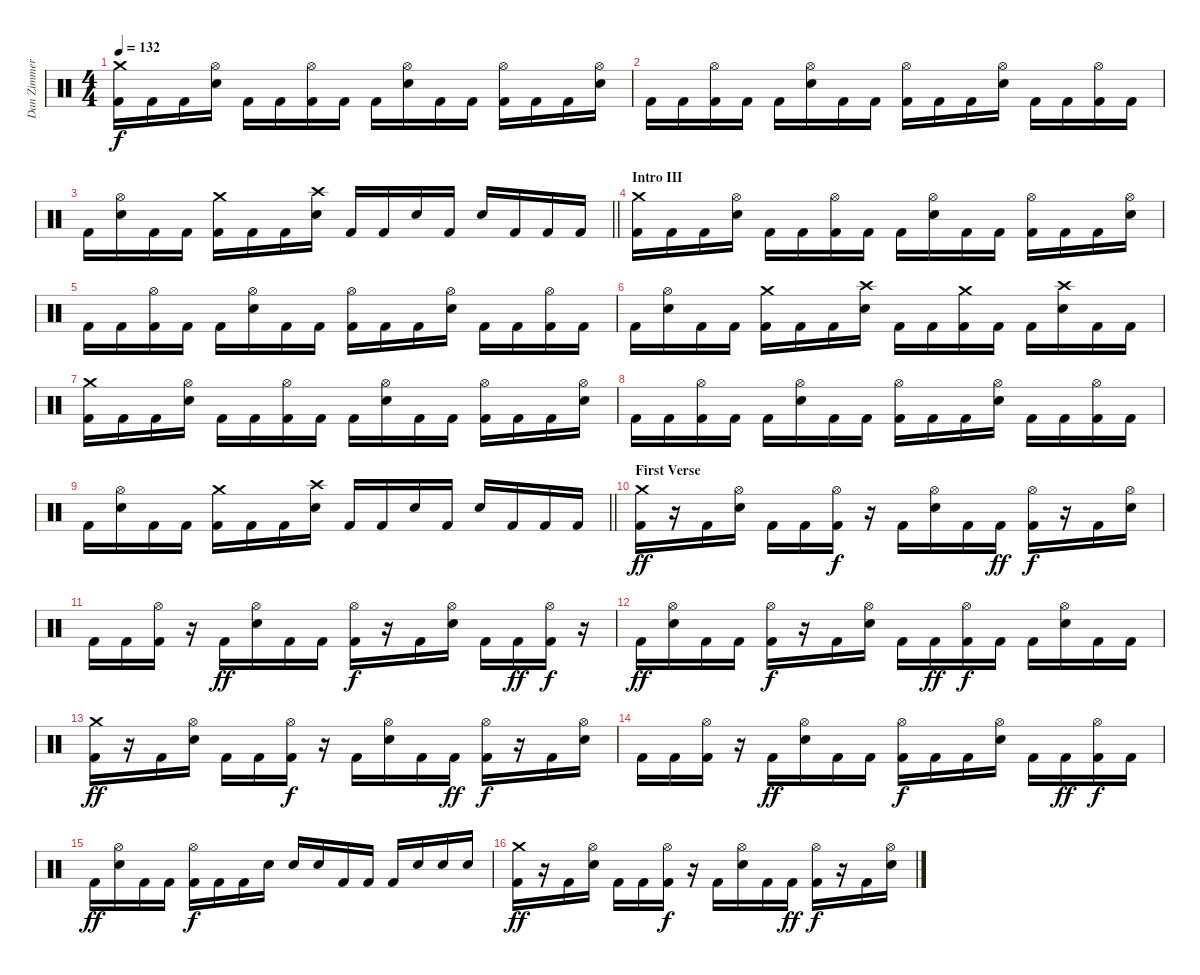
\track ("Dan Zimmermann" "Dan Zimmer") {instrument percussion}
\staff {score}
\articulation defaults
\ts (4 4)
\tempo 132
\clef neutral
\ks c
("Crash medium (hit)" "Kick (hit) 2").16{dy f} "Kick (hit) 2".16 "Kick (hit) 2".16 ("Hi-Hat (open)" "Electric Snare (hit)").16 "Kick (hit) 2".16 "Kick (hit) 2".16 ("Hi-Hat (open)" "Kick (hit) 2").16 "Kick (hit) 2".16 "Kick (hit) 2".16 ("Hi-Hat (open)" "Electric Snare (hit)").16 "Kick (hit) 2".16 "Kick (hit) 2".16 ("Hi-Hat (open)" "Kick (hit) 2").16 "Kick (hit) 2".16 "Kick (hit) 2".16 ("Hi-Hat (open)" "Electric Snare (hit)").16 |
"Kick (hit) 2".16 "Kick (hit) 2".16 ("Hi-Hat (open)" "Kick (hit) 2").16 "Kick (hit) 2".16 "Kick (hit) 2".16 ("Hi-Hat (open)" "Electric Snare (hit)").16 "Kick (hit) 2".16 "Kick (hit) 2".16 ("Hi-Hat (open)" "Kick (hit) 2").16 "Kick (hit) 2".16 "Kick (hit) 2".16 ("Hi-Hat (open)" "Electric Snare (hit)").16 "Kick (hit) 2".16 "Kick (hit) 2".16 ("Hi-Hat (open)" "Kick (hit) 2").16 "Kick (hit) 2".16 |
\barLineRight lightlight "Kick (hit) 2".16
("Hi-Hat (open)" "Electric Snare (hit)").16 "Kick (hit) 2".16 "Kick (hit) 2".16 ("Crash medium (hit)" "Kick (hit) 2").16 "Kick (hit) 2".16 "Kick (hit) 2".16 ("Crash high (hit)" "Electric Snare (hit)").16 "Kick (hit) 2".16 "Kick (hit) 2".16 "Electric Snare (hit)".16 "Kick (hit) 2".16 "Electric Snare (hit)".16 "Kick (hit) 2".16 "Kick (hit) 2".16 "Kick (hit) 2".16 |
\section ("" "Intro III")
("Crash medium (hit)" "Kick (hit) 2").16 "Kick (hit) 2".16 "Kick (hit) 2".16 ("Hi-Hat (open)" "Electric Snare (hit)").16 "Kick (hit) 2".16 "Kick (hit) 2".16 ("Hi-Hat (open)" "Kick (hit) 2").16 "Kick (hit) 2".16 "Kick (hit) 2".16 ("Hi-Hat (open)" "Electric Snare (hit)").16 "Kick (hit) 2".16 "Kick (hit) 2".16 ("Hi-Hat (open)" "Kick (hit) 2").16 "Kick (hit) 2".16 "Kick (hit) 2".16 ("Hi-Hat (open)" "Electric Snare (hit)").16 |
"Kick (hit) 2".16 "Kick (hit) 2".16 ("Hi-Hat (open)" "Kick (hit) 2").16 "Kick (hit) 2".16 "Kick (hit) 2".16 ("Hi-Hat (open)" "Electric Snare (hit)").16 "Kick (hit) 2".16 "Kick (hit) 2".16 ("Hi-Hat (open)" "Kick (hit) 2").16 "Kick (hit) 2".16 "Kick (hit) 2".16 ("Hi-Hat (open)" "Electric Snare (hit)").16 "Kick (hit) 2".16 "Kick (hit) 2".16 ("Hi-Hat (open)" "Kick (hit) 2").16 "Kick (hit) 2".16 |
"Kick (hit) 2".16 ("Hi-Hat (open)" "Electric Snare (hit)").16 "Kick (hit) 2".16 "Kick (hit) 2".16 ("Crash medium (hit)" "Kick (hit) 2").16 "Kick (hit) 2".16 "Kick (hit) 2".16 ("Crash high (hit)" "Electric Snare (hit)").16 "Kick (hit) 2".16 "Kick (hit) 2".16 ("Crash medium (hit)" "Kick (hit) 2").16 "Kick (hit) 2".16 "Kick (hit) 2".16 ("Crash high (hit)" "Electric Snare (hit)").16 "Kick (hit) 2".16 "Kick (hit) 2".16 |
("Crash medium (hit)" "Kick (hit) 2").16 "Kick (hit) 2".16 "Kick (hit) 2".16 ("Hi-Hat (open)" "Electric Snare (hit)").16 "Kick (hit) 2".16 "Kick (hit) 2".16 ("Hi-Hat (open)" "Kick (hit) 2").16 "Kick (hit) 2".16 "Kick (hit) 2".16 ("Hi-Hat (open)" "Electric Snare (hit)").16 "Kick (hit) 2".16 "Kick (hit) 2".16 ("Hi-Hat (open)" "Kick (hit) 2").16 "Kick (hit) 2".16 "Kick (hit) 2".16 ("Hi-Hat (open)" "Electric Snare (hit)").16 |
"Kick (hit) 2".16 "Kick (hit) 2".16 ("Hi-Hat (open)" "Kick (hit) 2").16 "Kick (hit) 2".16 "Kick (hit) 2".16 ("Hi-Hat (open)" "Electric Snare (hit)").16 "Kick (hit) 2".16 "Kick (hit) 2".16 ("Hi-Hat (open)" "Kick (hit) 2").16 "Kick (hit) 2".16 "Kick (hit) 2".16 ("Hi-Hat (open)" "Electric Snare (hit)").16 "Kick (hit) 2".16 "Kick (hit) 2".16 ("Hi-Hat (open)" "Kick (hit) 2").16 "Kick (hit) 2".16 |
\barLineRight lightlight "Kick (hit) 2".16
("Hi-Hat (open)" "Electric Snare (hit)").16 "Kick (hit) 2".16 "Kick (hit) 2".16 ("Crash medium (hit)" "Kick (hit) 2").16 "Kick (hit) 2".16 "Kick (hit) 2".16 ("Crash high (hit)" "Electric Snare (hit)").16 "Kick (hit) 2".16 "Kick (hit) 2".16 "Electric Snare (hit)".16 "Kick (hit) 2".16 "Electric Snare (hit)".16 "Kick (hit) 2".16 "Kick (hit) 2".16 "Kick (hit) 2".16 |
\section ("" "First Verse")
("Crash medium (hit)" "Kick (hit) 2").16{dy ff} r.16 "Kick (hit) 2".16 ("Hi-Hat (open)" "Electric Snare (hit)").16 "Kick (hit) 2".16 "Kick (hit) 2".16 ("Hi-Hat (open)" "Kick (hit) 2").16{dy f} r.16 "Kick (hit) 2".16 ("Hi-Hat (open)" "Electric Snare (hit)").16 "Kick (hit) 2".16 "Kick (hit) 2".16{dy ff} ("Hi-Hat (open)" "Kick (hit) 2").16{dy f} r.16 "Kick (hit) 2".16 ("Hi-Hat (open)" "Electric Snare (hit)").16 |
"Kick (hit) 2".16 "Kick (hit) 2".16 ("Hi-Hat (open)" "Kick (hit) 2").16 r.16 "Kick (hit) 2".16{dy ff} ("Hi-Hat (open)" "Electric Snare (hit)").16 "Kick (hit) 2".16 "Kick (hit) 2".16 ("Hi-Hat (open)" "Kick (hit) 2").16{dy f} r.16 "Kick (hit) 2".16 ("Hi-Hat (open)" "Electric Snare (hit)").16 "Kick (hit) 2".16 "Kick (hit) 2".16{dy ff} ("Hi-Hat (open)" "Kick (hit) 2").16{dy f} r.16 |
"Kick (hit) 2".16{dy ff} ("Hi-Hat (open)" "Electric Snare (hit)").16 "Kick (hit) 2".16 "Kick (hit) 2".16 ("Hi-Hat (open)" "Kick (hit) 2").16{dy f} r.16 "Kick (hit) 2".16 ("Hi-Hat (open)" "Electric Snare (hit)").16 "Kick (hit) 2".16 "Kick (hit) 2".16{dy ff} ("Hi-Hat (open)" "Kick (hit) 2").16{dy f} "Kick (hit) 2".16 "Kick (hit) 2".16 ("Hi-Hat (open)" "Electric Snare (hit)").16 "Kick (hit) 2".16 "Kick (hit) 2".16 |
("Crash medium (hit)" "Kick (hit) 2").16{dy ff} r.16 "Kick (hit) 2".16 ("Hi-Hat (open)" "Electric Snare (hit)").16 "Kick (hit) 2".16 "Kick (hit) 2".16 ("Hi-Hat (open)" "Kick (hit) 2").16{dy f} r.16 "Kick (hit) 2".16 ("Hi-Hat (open)" "Electric Snare (hit)").16 "Kick (hit) 2".16 "Kick (hit) 2".16{dy ff} ("Hi-Hat (open)" "Kick (hit) 2").16{dy f} r.16 "Kick (hit) 2".16 ("Hi-Hat (open)" "Electric Snare (hit)").16 |
"Kick (hit) 2".16 "Kick (hit) 2".16 ("Hi-Hat (open)" "Kick (hit) 2").16 r.16 "Kick (hit) 2".16{dy ff} ("Hi-Hat (open)" "Electric Snare (hit)").16 "Kick (hit) 2".16 "Kick (hit) 2".16 ("Hi-Hat (open)" "Kick (hit) 2").16{dy f} "Kick (hit) 2".16 "Kick (hit) 2".16 ("Hi-Hat (open)" "Electric Snare (hit)").16 "Kick (hit) 2".16 "Kick (hit) 2".16{dy ff} ("Hi-Hat (open)" "Kick (hit) 2").16{dy f} "Kick (hit) 2".16 |
"Kick (hit) 2".16{dy ff} ("Hi-Hat (open)" "Electric Snare (hit)").16 "Kick (hit) 2".16 "Kick (hit) 2".16 ("Hi-Hat (open)" "Kick (hit) 2").16{dy f} "Kick (hit) 2".16 "Kick (hit) 2".16 "Electric Snare (hit)".16 "Electric Snare (hit)".16 "Electric Snare (hit)".16 "Kick (hit) 2".16 "Kick (hit) 2".16 "Kick (hit) 2".16 "Electric Snare (hit)".16 "Electric Snare (hit)".16 "Electric Snare (hit)".16 |
("Crash medium (hit)" "Kick (hit) 2").16{dy ff} r.16 "Kick (hit) 2".16 ("Hi-Hat (open)" "Electric Snare (hit)").16 "Kick (hit) 2".16 "Kick (hit) 2".16 ("Hi-Hat (open)" "Kick (hit) 2").16{dy f} r.16 "Kick (hit) 2".16 ("Hi-Hat (open)" "Electric Snare (hit)").16 "Kick (hit) 2".16 "Kick (hit) 2".16{dy ff} ("Hi-Hat (open)" "Kick (hit) 2").16{dy f} r.16 "Kick (hit) 2".16 ("Hi-Hat (open)" "Electric Snare (hit)").16
